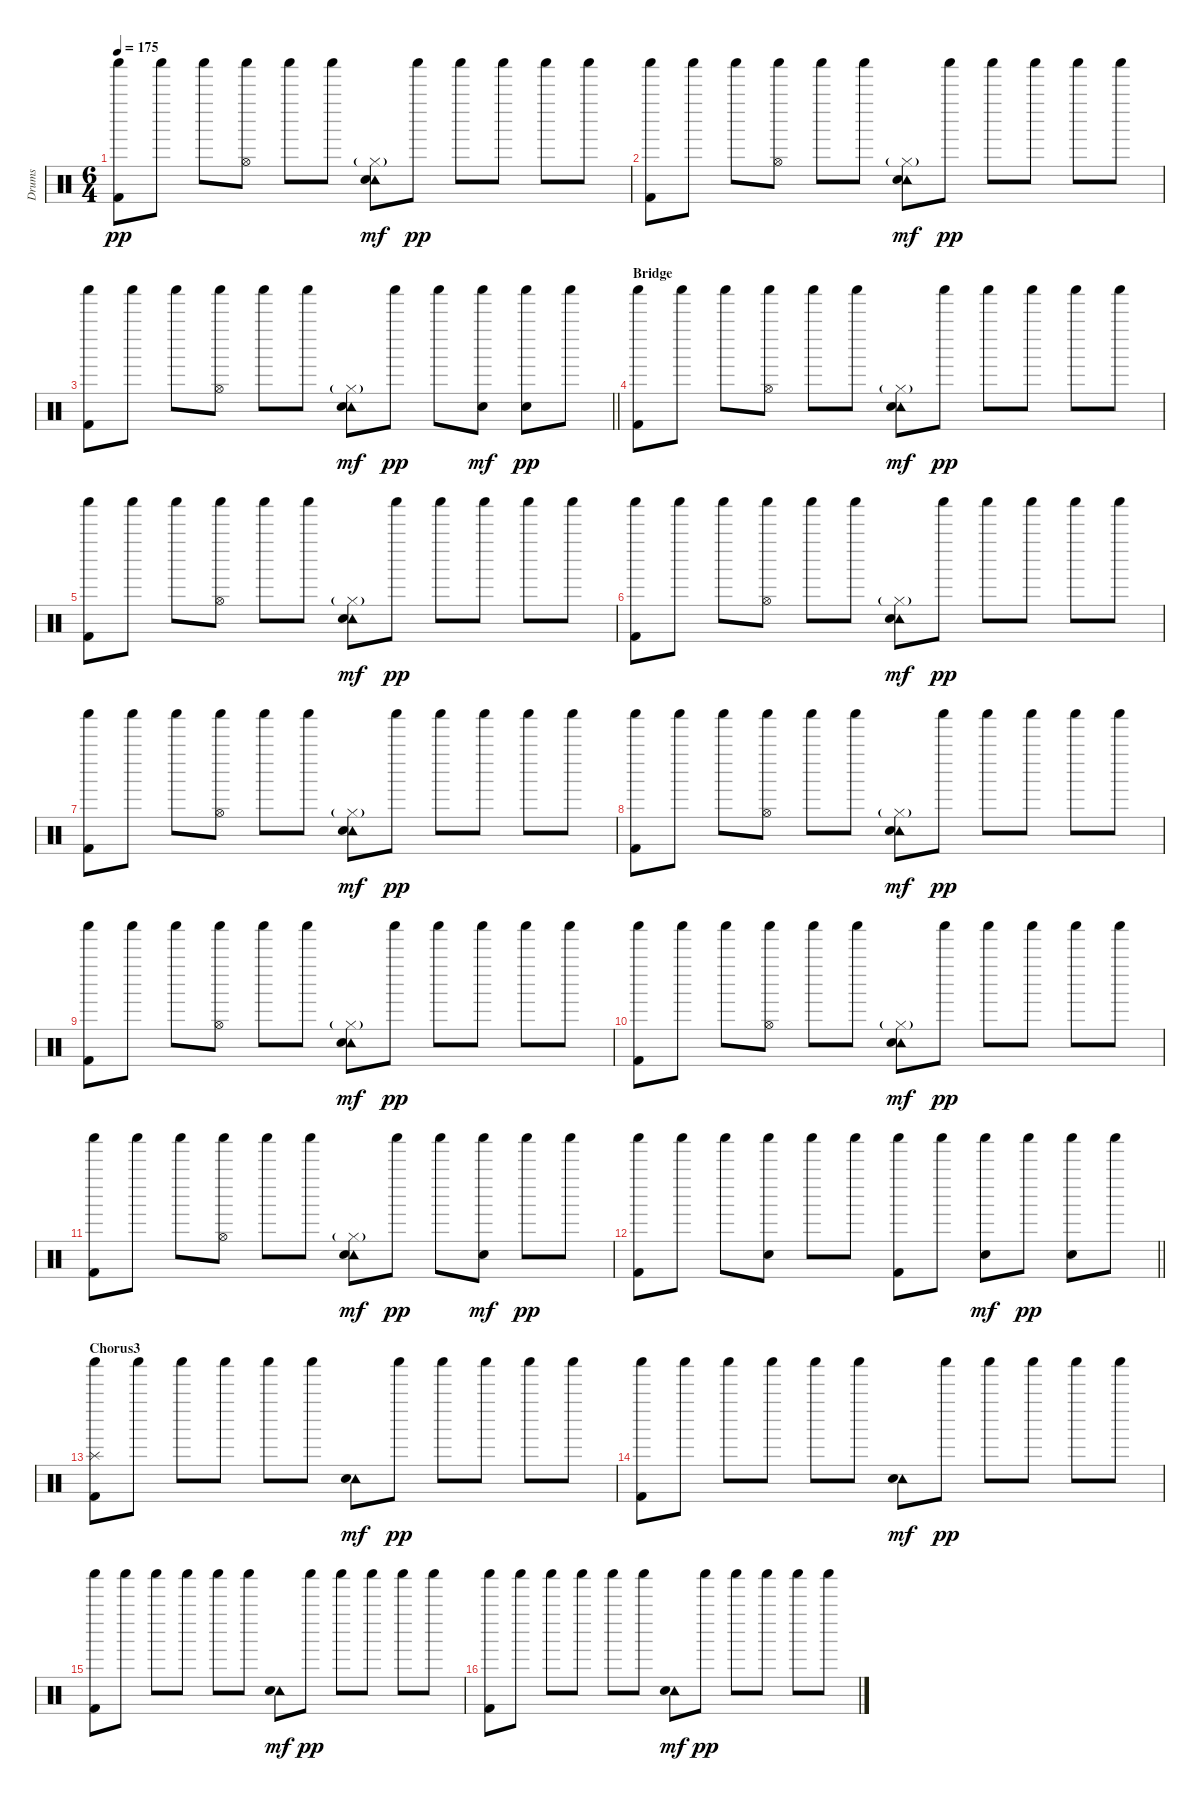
\track ("Drums" "Drums") {instrument percussion}
\staff {score}
\articulation defaults
\ts (6 4)
\tempo 175
\clef neutral
\ks c
("Shaker (hit)" "Kick (hit) 2").8{dy pp} "Shaker (hit)".8 "Shaker (hit)".8 ("Hi-Hat (open)" "Shaker (hit)").8 "Shaker (hit)".8 "Shaker (hit)".8 ("Hi-Hat (closed)"{g} "Tambourine (hit)" "Snare (hit) 2").8{dy mf} "Shaker (hit)".8{dy pp} "Shaker (hit)".8 "Shaker (hit)".8 "Shaker (hit)".8 "Shaker (hit)".8 |
("Shaker (hit)" "Kick (hit) 2").8 "Shaker (hit)".8 "Shaker (hit)".8 ("Hi-Hat (open)" "Shaker (hit)").8 "Shaker (hit)".8 "Shaker (hit)".8 ("Hi-Hat (closed)"{g} "Tambourine (hit)" "Snare (hit) 2").8{dy mf} "Shaker (hit)".8{dy pp} "Shaker (hit)".8 "Shaker (hit)".8 "Shaker (hit)".8 "Shaker (hit)".8 |
\barLineRight lightlight
("Shaker (hit)" "Kick (hit) 2").8 "Shaker (hit)".8 "Shaker (hit)".8 ("Hi-Hat (open)" "Shaker (hit)").8 "Shaker (hit)".8 "Shaker (hit)".8 ("Hi-Hat (closed)"{g} "Tambourine (hit)" "Snare (hit) 2").8{dy mf} "Shaker (hit)".8{dy pp} "Shaker (hit)".8 ("Shaker (hit)" "Snare (hit) 2").8{dy mf} ("Shaker (hit)" "Snare (hit) 2").8{dy pp} "Shaker (hit)".8 |
\section ("" "Bridge")
("Shaker (hit)" "Kick (hit) 2").8 "Shaker (hit)".8 "Shaker (hit)".8 ("Hi-Hat (open)" "Shaker (hit)").8 "Shaker (hit)".8 "Shaker (hit)".8 ("Hi-Hat (closed)"{g} "Tambourine (hit)" "Snare (hit) 2").8{dy mf} "Shaker (hit)".8{dy pp} "Shaker (hit)".8 "Shaker (hit)".8 "Shaker (hit)".8 "Shaker (hit)".8 |
("Shaker (hit)" "Kick (hit) 2").8 "Shaker (hit)".8 "Shaker (hit)".8 ("Hi-Hat (open)" "Shaker (hit)").8 "Shaker (hit)".8 "Shaker (hit)".8 ("Hi-Hat (closed)"{g} "Tambourine (hit)" "Snare (hit) 2").8{dy mf} "Shaker (hit)".8{dy pp} "Shaker (hit)".8 "Shaker (hit)".8 "Shaker (hit)".8 "Shaker (hit)".8 |
("Shaker (hit)" "Kick (hit) 2").8 "Shaker (hit)".8 "Shaker (hit)".8 ("Hi-Hat (open)" "Shaker (hit)").8 "Shaker (hit)".8 "Shaker (hit)".8 ("Hi-Hat (closed)"{g} "Tambourine (hit)" "Snare (hit) 2").8{dy mf} "Shaker (hit)".8{dy pp} "Shaker (hit)".8 "Shaker (hit)".8 "Shaker (hit)".8 "Shaker (hit)".8 |
("Shaker (hit)" "Kick (hit) 2").8 "Shaker (hit)".8 "Shaker (hit)".8 ("Hi-Hat (open)" "Shaker (hit)").8 "Shaker (hit)".8 "Shaker (hit)".8 ("Hi-Hat (closed)"{g} "Tambourine (hit)" "Snare (hit) 2").8{dy mf} "Shaker (hit)".8{dy pp} "Shaker (hit)".8 "Shaker (hit)".8 "Shaker (hit)".8 "Shaker (hit)".8 |
("Shaker (hit)" "Kick (hit) 2").8 "Shaker (hit)".8 "Shaker (hit)".8 ("Hi-Hat (open)" "Shaker (hit)").8 "Shaker (hit)".8 "Shaker (hit)".8 ("Hi-Hat (closed)"{g} "Tambourine (hit)" "Snare (hit) 2").8{dy mf} "Shaker (hit)".8{dy pp} "Shaker (hit)".8 "Shaker (hit)".8 "Shaker (hit)".8 "Shaker (hit)".8 |
("Shaker (hit)" "Kick (hit) 2").8 "Shaker (hit)".8 "Shaker (hit)".8 ("Hi-Hat (open)" "Shaker (hit)").8 "Shaker (hit)".8 "Shaker (hit)".8 ("Hi-Hat (closed)"{g} "Tambourine (hit)" "Snare (hit) 2").8{dy mf} "Shaker (hit)".8{dy pp} "Shaker (hit)".8 "Shaker (hit)".8 "Shaker (hit)".8 "Shaker (hit)".8 |
("Shaker (hit)" "Kick (hit) 2").8 "Shaker (hit)".8 "Shaker (hit)".8 ("Hi-Hat (open)" "Shaker (hit)").8 "Shaker (hit)".8 "Shaker (hit)".8 ("Hi-Hat (closed)"{g} "Tambourine (hit)" "Snare (hit) 2").8{dy mf} "Shaker (hit)".8{dy pp} "Shaker (hit)".8 "Shaker (hit)".8 "Shaker (hit)".8 "Shaker (hit)".8 |
("Shaker (hit)" "Kick (hit) 2").8 "Shaker (hit)".8 "Shaker (hit)".8 ("Hi-Hat (open)" "Shaker (hit)").8 "Shaker (hit)".8 "Shaker (hit)".8 ("Hi-Hat (closed)"{g} "Tambourine (hit)" "Snare (hit) 2").8{dy mf} "Shaker (hit)".8{dy pp} "Shaker (hit)".8 ("Shaker (hit)" "Snare (hit) 2").8{dy mf} "Shaker (hit)".8{dy pp} "Shaker (hit)".8 |
\barLineRight lightlight
("Shaker (hit)" "Kick (hit) 2").8 "Shaker (hit)".8 "Shaker (hit)".8 ("Shaker (hit)" "Snare (hit) 2").8 "Shaker (hit)".8 "Shaker (hit)".8 ("Shaker (hit)" "Kick (hit) 2").8 "Shaker (hit)".8 ("Shaker (hit)" "Snare (hit) 2").8{dy mf} "Shaker (hit)".8{dy pp} ("Shaker (hit)" "Snare (hit) 2").8 "Shaker (hit)".8 |
\section ("" "Chorus3")
("Splash (hit)" "Shaker (hit)" "Kick (hit) 2").8 "Shaker (hit)".8 "Shaker (hit)".8 "Shaker (hit)".8 "Shaker (hit)".8 "Shaker (hit)".8 ("Tambourine (hit)" "Snare (hit) 2").8{dy mf} "Shaker (hit)".8{dy pp} "Shaker (hit)".8 "Shaker (hit)".8 "Shaker (hit)".8 "Shaker (hit)".8 |
("Shaker (hit)" "Kick (hit) 2").8 "Shaker (hit)".8 "Shaker (hit)".8 "Shaker (hit)".8 "Shaker (hit)".8 "Shaker (hit)".8 ("Tambourine (hit)" "Snare (hit) 2").8{dy mf} "Shaker (hit)".8{dy pp} "Shaker (hit)".8 "Shaker (hit)".8 "Shaker (hit)".8 "Shaker (hit)".8 |
("Shaker (hit)" "Kick (hit) 2").8 "Shaker (hit)".8 "Shaker (hit)".8 "Shaker (hit)".8 "Shaker (hit)".8 "Shaker (hit)".8 ("Tambourine (hit)" "Snare (hit) 2").8{dy mf} "Shaker (hit)".8{dy pp} "Shaker (hit)".8 "Shaker (hit)".8 "Shaker (hit)".8 "Shaker (hit)".8 |
("Shaker (hit)" "Kick (hit) 2").8 "Shaker (hit)".8 "Shaker (hit)".8 "Shaker (hit)".8 "Shaker (hit)".8 "Shaker (hit)".8 ("Tambourine (hit)" "Snare (hit) 2").8{dy mf} "Shaker (hit)".8{dy pp} "Shaker (hit)".8 "Shaker (hit)".8 "Shaker (hit)".8 "Shaker (hit)".8
